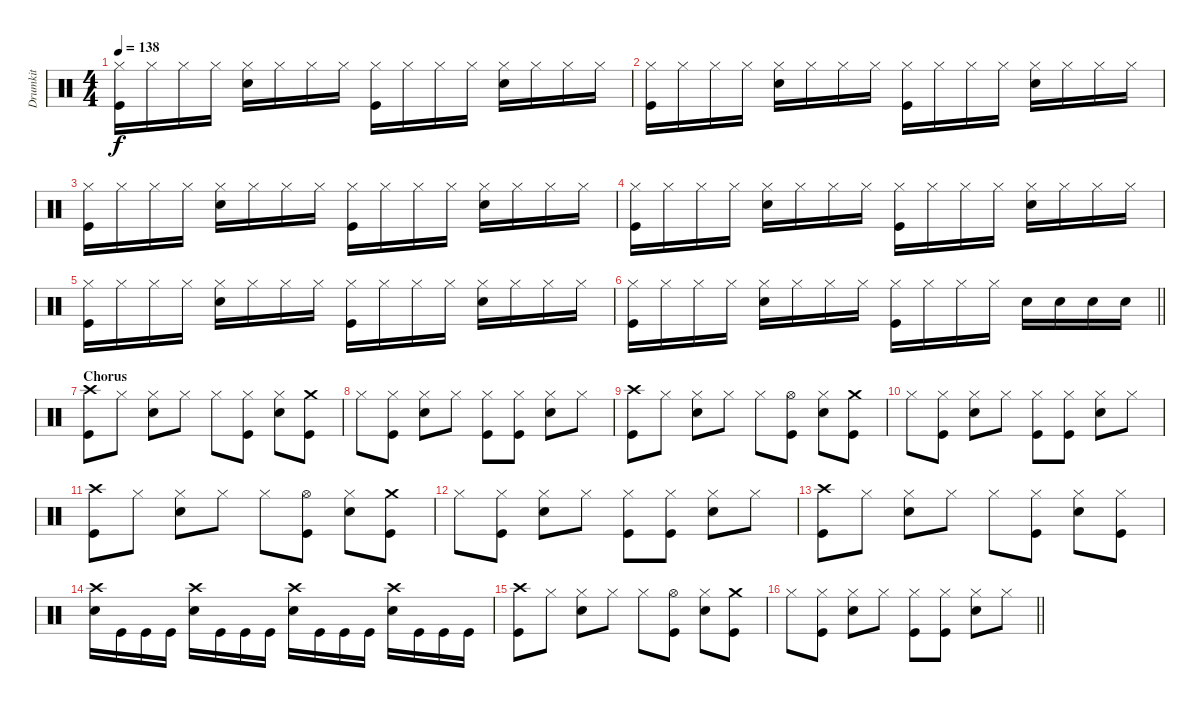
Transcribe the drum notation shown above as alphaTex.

\track ("Drumkit" "Drumkit") {instrument percussion}
\staff {score}
\articulation defaults
\ts (4 4)
\tempo 138
\clef neutral
\ks c
("Kick (hit)" "Hi-Hat (closed)").16{dy f} "Hi-Hat (closed)".16 "Hi-Hat (closed)".16 "Hi-Hat (closed)".16 ("Snare (hit) 2" "Hi-Hat (closed)").16 "Hi-Hat (closed)".16 "Hi-Hat (closed)".16 "Hi-Hat (closed)".16 ("Kick (hit)" "Hi-Hat (closed)").16 "Hi-Hat (closed)".16 "Hi-Hat (closed)".16 "Hi-Hat (closed)".16 ("Snare (hit) 2" "Hi-Hat (closed)").16 "Hi-Hat (closed)".16 "Hi-Hat (closed)".16 "Hi-Hat (closed)".16 |
("Kick (hit)" "Hi-Hat (closed)").16 "Hi-Hat (closed)".16 "Hi-Hat (closed)".16 "Hi-Hat (closed)".16 ("Snare (hit) 2" "Hi-Hat (closed)").16 "Hi-Hat (closed)".16 "Hi-Hat (closed)".16 "Hi-Hat (closed)".16 ("Kick (hit)" "Hi-Hat (closed)").16 "Hi-Hat (closed)".16 "Hi-Hat (closed)".16 "Hi-Hat (closed)".16 ("Snare (hit) 2" "Hi-Hat (closed)").16 "Hi-Hat (closed)".16 "Hi-Hat (closed)".16 "Hi-Hat (closed)".16 |
("Kick (hit)" "Hi-Hat (closed)").16 "Hi-Hat (closed)".16 "Hi-Hat (closed)".16 "Hi-Hat (closed)".16 ("Snare (hit) 2" "Hi-Hat (closed)").16 "Hi-Hat (closed)".16 "Hi-Hat (closed)".16 "Hi-Hat (closed)".16 ("Kick (hit)" "Hi-Hat (closed)").16 "Hi-Hat (closed)".16 "Hi-Hat (closed)".16 "Hi-Hat (closed)".16 ("Snare (hit) 2" "Hi-Hat (closed)").16 "Hi-Hat (closed)".16 "Hi-Hat (closed)".16 "Hi-Hat (closed)".16 |
("Kick (hit)" "Hi-Hat (closed)").16 "Hi-Hat (closed)".16 "Hi-Hat (closed)".16 "Hi-Hat (closed)".16 ("Snare (hit) 2" "Hi-Hat (closed)").16 "Hi-Hat (closed)".16 "Hi-Hat (closed)".16 "Hi-Hat (closed)".16 ("Kick (hit)" "Hi-Hat (closed)").16 "Hi-Hat (closed)".16 "Hi-Hat (closed)".16 "Hi-Hat (closed)".16 ("Snare (hit) 2" "Hi-Hat (closed)").16 "Hi-Hat (closed)".16 "Hi-Hat (closed)".16 "Hi-Hat (closed)".16 |
("Kick (hit)" "Hi-Hat (closed)").16 "Hi-Hat (closed)".16 "Hi-Hat (closed)".16 "Hi-Hat (closed)".16 ("Snare (hit) 2" "Hi-Hat (closed)").16 "Hi-Hat (closed)".16 "Hi-Hat (closed)".16 "Hi-Hat (closed)".16 ("Kick (hit)" "Hi-Hat (closed)").16 "Hi-Hat (closed)".16 "Hi-Hat (closed)".16 "Hi-Hat (closed)".16 ("Snare (hit) 2" "Hi-Hat (closed)").16 "Hi-Hat (closed)".16 "Hi-Hat (closed)".16 "Hi-Hat (closed)".16 |
\barLineRight lightlight
("Kick (hit)" "Hi-Hat (closed)").16 "Hi-Hat (closed)".16 "Hi-Hat (closed)".16 "Hi-Hat (closed)".16 ("Snare (hit) 2" "Hi-Hat (closed)").16 "Hi-Hat (closed)".16 "Hi-Hat (closed)".16 "Hi-Hat (closed)".16 ("Kick (hit)" "Hi-Hat (closed)").16 "Hi-Hat (closed)".16 "Hi-Hat (closed)".16 "Hi-Hat (closed)".16 "Snare (hit) 2".16 "Snare (hit) 2".16 "Snare (hit) 2".16 "Snare (hit) 2".16 |
\section ("" "Chorus")
("Kick (hit)" "Crash high (hit)").8 "Hi-Hat (closed)".8 ("Snare (hit) 2" "Hi-Hat (closed)").8 "Hi-Hat (closed)".8 "Hi-Hat (closed)".8 ("Kick (hit)" "Hi-Hat (closed)").8 ("Snare (hit) 2" "Hi-Hat (closed)").8 ("Kick (hit)" "Crash medium (hit)").8 |
"Hi-Hat (closed)".8 ("Hi-Hat (closed)" "Kick (hit)").8 ("Hi-Hat (closed)" "Snare (hit) 2").8 "Hi-Hat (closed)".8 ("Hi-Hat (closed)" "Kick (hit)").8 ("Hi-Hat (closed)" "Kick (hit)").8 ("Snare (hit) 2" "Hi-Hat (closed)").8 "Hi-Hat (closed)".8 |
("Kick (hit)" "Crash high (hit)").8 "Hi-Hat (closed)".8 ("Snare (hit) 2" "Hi-Hat (closed)").8 "Hi-Hat (closed)".8 "Hi-Hat (closed)".8 ("Kick (hit)" "Hi-Hat (open)").8 ("Snare (hit) 2" "Hi-Hat (closed)").8 ("Kick (hit)" "Crash medium (hit)").8 |
"Hi-Hat (closed)".8 ("Hi-Hat (closed)" "Kick (hit)").8 ("Hi-Hat (closed)" "Snare (hit) 2").8 "Hi-Hat (closed)".8 ("Hi-Hat (closed)" "Kick (hit)").8 ("Hi-Hat (closed)" "Kick (hit)").8 ("Snare (hit) 2" "Hi-Hat (closed)").8 "Hi-Hat (closed)".8 |
("Kick (hit)" "Crash high (hit)").8 "Hi-Hat (closed)".8 ("Snare (hit) 2" "Hi-Hat (closed)").8 "Hi-Hat (closed)".8 "Hi-Hat (closed)".8 ("Kick (hit)" "Hi-Hat (open)").8 ("Snare (hit) 2" "Hi-Hat (closed)").8 ("Kick (hit)" "Crash medium (hit)").8 |
"Hi-Hat (closed)".8 ("Hi-Hat (closed)" "Kick (hit)").8 ("Hi-Hat (closed)" "Snare (hit) 2").8 "Hi-Hat (closed)".8 ("Hi-Hat (closed)" "Kick (hit)").8 ("Hi-Hat (closed)" "Kick (hit)").8 ("Snare (hit) 2" "Hi-Hat (closed)").8 "Hi-Hat (closed)".8 |
("Kick (hit)" "Crash high (hit)").8 "Hi-Hat (closed)".8 ("Snare (hit) 2" "Hi-Hat (closed)").8 "Hi-Hat (closed)".8 "Hi-Hat (closed)".8 ("Kick (hit)" "Hi-Hat (closed)").8 ("Snare (hit) 2" "Hi-Hat (closed)").8 ("Kick (hit)" "Hi-Hat (closed)").8 |
("Snare (hit) 2" "Crash high (hit)").16 "Kick (hit)".16 "Kick (hit)".16 "Kick (hit)".16 ("Snare (hit) 2" "Crash high (hit)").16 "Kick (hit)".16 "Kick (hit)".16 "Kick (hit)".16 ("Snare (hit) 2" "Crash high (hit)").16 "Kick (hit)".16 "Kick (hit)".16 "Kick (hit)".16 ("Snare (hit) 2" "Crash high (hit)").16 "Kick (hit)".16 "Kick (hit)".16 "Kick (hit)".16 |
("Kick (hit)" "Crash high (hit)").8 "Hi-Hat (closed)".8 ("Snare (hit) 2" "Hi-Hat (closed)").8 "Hi-Hat (closed)".8 "Hi-Hat (closed)".8 ("Kick (hit)" "Hi-Hat (open)").8 ("Snare (hit) 2" "Hi-Hat (closed)").8 ("Kick (hit)" "Crash medium (hit)").8 |
\barLineRight lightlight "Hi-Hat (closed)".8
("Hi-Hat (closed)" "Kick (hit)").8 ("Hi-Hat (closed)" "Snare (hit) 2").8 "Hi-Hat (closed)".8 ("Hi-Hat (closed)" "Kick (hit)").8 ("Hi-Hat (closed)" "Kick (hit)").8 ("Snare (hit) 2" "Hi-Hat (closed)").8 "Hi-Hat (closed)".8
